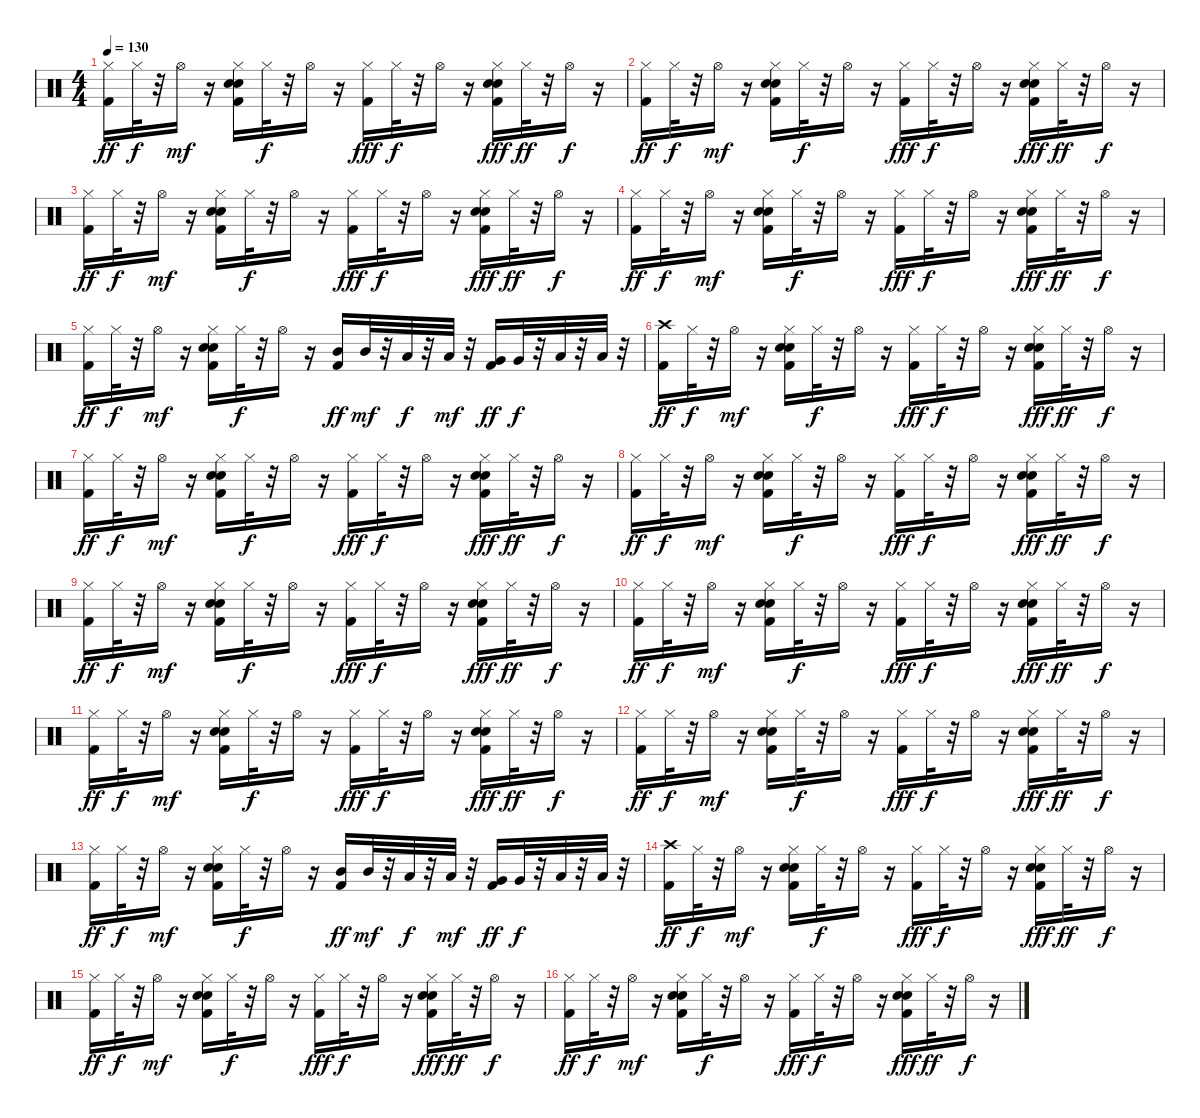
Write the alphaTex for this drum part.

\track "" {instrument percussion}
\staff {score}
\articulation defaults
\ts (4 4)
\tempo 130
\clef neutral
\ks c
("Kick (hit) 2" "Hi-Hat (closed)").16{dy ff} "Hi-Hat (closed)".32{dy f} r.32 "Hi-Hat (open)".16{dy mf} r.16 ("Kick (hit) 2" "Hand Clap (hit)" "Electric Snare (hit)" "Hi-Hat (closed)").16 "Hi-Hat (closed)".32{dy f} r.32 "Hi-Hat (open)".16 r.16 ("Kick (hit) 2" "Hi-Hat (closed)").16{dy fff} "Hi-Hat (closed)".32{dy f} r.32 "Hi-Hat (open)".16 r.16 ("Kick (hit) 2" "Hand Clap (hit)" "Electric Snare (hit)" "Hi-Hat (closed)").16{dy fff} "Hi-Hat (closed)".32{dy ff} r.32 "Hi-Hat (open)".16{dy f} r.16 |
("Kick (hit) 2" "Hi-Hat (closed)").16{dy ff} "Hi-Hat (closed)".32{dy f} r.32 "Hi-Hat (open)".16{dy mf} r.16 ("Kick (hit) 2" "Hand Clap (hit)" "Electric Snare (hit)" "Hi-Hat (closed)").16 "Hi-Hat (closed)".32{dy f} r.32 "Hi-Hat (open)".16 r.16 ("Kick (hit) 2" "Hi-Hat (closed)").16{dy fff} "Hi-Hat (closed)".32{dy f} r.32 "Hi-Hat (open)".16 r.16 ("Kick (hit) 2" "Hand Clap (hit)" "Electric Snare (hit)" "Hi-Hat (closed)").16{dy fff} "Hi-Hat (closed)".32{dy ff} r.32 "Hi-Hat (open)".16{dy f} r.16 |
("Kick (hit) 2" "Hi-Hat (closed)").16{dy ff} "Hi-Hat (closed)".32{dy f} r.32 "Hi-Hat (open)".16{dy mf} r.16 ("Kick (hit) 2" "Hand Clap (hit)" "Electric Snare (hit)" "Hi-Hat (closed)").16 "Hi-Hat (closed)".32{dy f} r.32 "Hi-Hat (open)".16 r.16 ("Kick (hit) 2" "Hi-Hat (closed)").16{dy fff} "Hi-Hat (closed)".32{dy f} r.32 "Hi-Hat (open)".16 r.16 ("Kick (hit) 2" "Hand Clap (hit)" "Electric Snare (hit)" "Hi-Hat (closed)").16{dy fff} "Hi-Hat (closed)".32{dy ff} r.32 "Hi-Hat (open)".16{dy f} r.16 |
("Kick (hit) 2" "Hi-Hat (closed)").16{dy ff} "Hi-Hat (closed)".32{dy f} r.32 "Hi-Hat (open)".16{dy mf} r.16 ("Kick (hit) 2" "Hand Clap (hit)" "Electric Snare (hit)" "Hi-Hat (closed)").16 "Hi-Hat (closed)".32{dy f} r.32 "Hi-Hat (open)".16 r.16 ("Kick (hit) 2" "Hi-Hat (closed)").16{dy fff} "Hi-Hat (closed)".32{dy f} r.32 "Hi-Hat (open)".16 r.16 ("Kick (hit) 2" "Hand Clap (hit)" "Electric Snare (hit)" "Hi-Hat (closed)").16{dy fff} "Hi-Hat (closed)".32{dy ff} r.32 "Hi-Hat (open)".16{dy f} r.16 |
("Kick (hit) 2" "Hi-Hat (closed)").16{dy ff} "Hi-Hat (closed)".32{dy f} r.32 "Hi-Hat (open)".16{dy mf} r.16 ("Kick (hit) 2" "Hand Clap (hit)" "Electric Snare (hit)" "Hi-Hat (closed)").16 "Hi-Hat (closed)".32{dy f} r.32 "Hi-Hat (open)".16 r.16 ("Kick (hit) 2" "Mid Tom (hit)").16{dy ff} "Mid Tom (hit)".32{dy mf} r.32 "Low Tom (hit)".32{dy f} r.32 "Low Tom (hit)".32{dy mf} r.32 ("Kick (hit) 2" "Very Low Tom (hit)").16{dy ff} "Very Low Tom (hit)".32{dy f} r.32 "Low Floor Tom (hit)".32 r.32 "Low Floor Tom (hit)".32 r.32 |
("Kick (hit) 2" "Crash high (hit)").16{dy ff} "Hi-Hat (closed)".32{dy f} r.32 "Hi-Hat (open)".16{dy mf} r.16 ("Kick (hit) 2" "Hand Clap (hit)" "Electric Snare (hit)" "Hi-Hat (closed)").16 "Hi-Hat (closed)".32{dy f} r.32 "Hi-Hat (open)".16 r.16 ("Kick (hit) 2" "Hi-Hat (closed)").16{dy fff} "Hi-Hat (closed)".32{dy f} r.32 "Hi-Hat (open)".16 r.16 ("Kick (hit) 2" "Hand Clap (hit)" "Electric Snare (hit)" "Hi-Hat (closed)").16{dy fff} "Hi-Hat (closed)".32{dy ff} r.32 "Hi-Hat (open)".16{dy f} r.16 |
("Kick (hit) 2" "Hi-Hat (closed)").16{dy ff} "Hi-Hat (closed)".32{dy f} r.32 "Hi-Hat (open)".16{dy mf} r.16 ("Kick (hit) 2" "Hand Clap (hit)" "Electric Snare (hit)" "Hi-Hat (closed)").16 "Hi-Hat (closed)".32{dy f} r.32 "Hi-Hat (open)".16 r.16 ("Kick (hit) 2" "Hi-Hat (closed)").16{dy fff} "Hi-Hat (closed)".32{dy f} r.32 "Hi-Hat (open)".16 r.16 ("Kick (hit) 2" "Hand Clap (hit)" "Electric Snare (hit)" "Hi-Hat (closed)").16{dy fff} "Hi-Hat (closed)".32{dy ff} r.32 "Hi-Hat (open)".16{dy f} r.16 |
("Kick (hit) 2" "Hi-Hat (closed)").16{dy ff} "Hi-Hat (closed)".32{dy f} r.32 "Hi-Hat (open)".16{dy mf} r.16 ("Kick (hit) 2" "Hand Clap (hit)" "Electric Snare (hit)" "Hi-Hat (closed)").16 "Hi-Hat (closed)".32{dy f} r.32 "Hi-Hat (open)".16 r.16 ("Kick (hit) 2" "Hi-Hat (closed)").16{dy fff} "Hi-Hat (closed)".32{dy f} r.32 "Hi-Hat (open)".16 r.16 ("Kick (hit) 2" "Hand Clap (hit)" "Electric Snare (hit)" "Hi-Hat (closed)").16{dy fff} "Hi-Hat (closed)".32{dy ff} r.32 "Hi-Hat (open)".16{dy f} r.16 |
("Kick (hit) 2" "Hi-Hat (closed)").16{dy ff} "Hi-Hat (closed)".32{dy f} r.32 "Hi-Hat (open)".16{dy mf} r.16 ("Kick (hit) 2" "Hand Clap (hit)" "Electric Snare (hit)" "Hi-Hat (closed)").16 "Hi-Hat (closed)".32{dy f} r.32 "Hi-Hat (open)".16 r.16 ("Kick (hit) 2" "Hi-Hat (closed)").16{dy fff} "Hi-Hat (closed)".32{dy f} r.32 "Hi-Hat (open)".16 r.16 ("Kick (hit) 2" "Hand Clap (hit)" "Electric Snare (hit)" "Hi-Hat (closed)").16{dy fff} "Hi-Hat (closed)".32{dy ff} r.32 "Hi-Hat (open)".16{dy f} r.16 |
("Kick (hit) 2" "Hi-Hat (closed)").16{dy ff} "Hi-Hat (closed)".32{dy f} r.32 "Hi-Hat (open)".16{dy mf} r.16 ("Kick (hit) 2" "Hand Clap (hit)" "Electric Snare (hit)" "Hi-Hat (closed)").16 "Hi-Hat (closed)".32{dy f} r.32 "Hi-Hat (open)".16 r.16 ("Kick (hit) 2" "Hi-Hat (closed)").16{dy fff} "Hi-Hat (closed)".32{dy f} r.32 "Hi-Hat (open)".16 r.16 ("Kick (hit) 2" "Hand Clap (hit)" "Electric Snare (hit)" "Hi-Hat (closed)").16{dy fff} "Hi-Hat (closed)".32{dy ff} r.32 "Hi-Hat (open)".16{dy f} r.16 |
("Kick (hit) 2" "Hi-Hat (closed)").16{dy ff} "Hi-Hat (closed)".32{dy f} r.32 "Hi-Hat (open)".16{dy mf} r.16 ("Kick (hit) 2" "Hand Clap (hit)" "Electric Snare (hit)" "Hi-Hat (closed)").16 "Hi-Hat (closed)".32{dy f} r.32 "Hi-Hat (open)".16 r.16 ("Kick (hit) 2" "Hi-Hat (closed)").16{dy fff} "Hi-Hat (closed)".32{dy f} r.32 "Hi-Hat (open)".16 r.16 ("Kick (hit) 2" "Hand Clap (hit)" "Electric Snare (hit)" "Hi-Hat (closed)").16{dy fff} "Hi-Hat (closed)".32{dy ff} r.32 "Hi-Hat (open)".16{dy f} r.16 |
("Kick (hit) 2" "Hi-Hat (closed)").16{dy ff} "Hi-Hat (closed)".32{dy f} r.32 "Hi-Hat (open)".16{dy mf} r.16 ("Kick (hit) 2" "Hand Clap (hit)" "Electric Snare (hit)" "Hi-Hat (closed)").16 "Hi-Hat (closed)".32{dy f} r.32 "Hi-Hat (open)".16 r.16 ("Kick (hit) 2" "Hi-Hat (closed)").16{dy fff} "Hi-Hat (closed)".32{dy f} r.32 "Hi-Hat (open)".16 r.16 ("Kick (hit) 2" "Hand Clap (hit)" "Electric Snare (hit)" "Hi-Hat (closed)").16{dy fff} "Hi-Hat (closed)".32{dy ff} r.32 "Hi-Hat (open)".16{dy f} r.16 |
("Kick (hit) 2" "Hi-Hat (closed)").16{dy ff} "Hi-Hat (closed)".32{dy f} r.32 "Hi-Hat (open)".16{dy mf} r.16 ("Kick (hit) 2" "Hand Clap (hit)" "Electric Snare (hit)" "Hi-Hat (closed)").16 "Hi-Hat (closed)".32{dy f} r.32 "Hi-Hat (open)".16 r.16 ("Kick (hit) 2" "Mid Tom (hit)").16{dy ff} "Mid Tom (hit)".32{dy mf} r.32 "Low Tom (hit)".32{dy f} r.32 "Low Tom (hit)".32{dy mf} r.32 ("Kick (hit) 2" "Very Low Tom (hit)").16{dy ff} "Very Low Tom (hit)".32{dy f} r.32 "Low Floor Tom (hit)".32 r.32 "Low Floor Tom (hit)".32 r.32 |
("Kick (hit) 2" "Crash high (hit)").16{dy ff} "Hi-Hat (closed)".32{dy f} r.32 "Hi-Hat (open)".16{dy mf} r.16 ("Kick (hit) 2" "Hand Clap (hit)" "Electric Snare (hit)" "Hi-Hat (closed)").16 "Hi-Hat (closed)".32{dy f} r.32 "Hi-Hat (open)".16 r.16 ("Kick (hit) 2" "Hi-Hat (closed)").16{dy fff} "Hi-Hat (closed)".32{dy f} r.32 "Hi-Hat (open)".16 r.16 ("Kick (hit) 2" "Hand Clap (hit)" "Electric Snare (hit)" "Hi-Hat (closed)").16{dy fff} "Hi-Hat (closed)".32{dy ff} r.32 "Hi-Hat (open)".16{dy f} r.16 |
("Kick (hit) 2" "Hi-Hat (closed)").16{dy ff} "Hi-Hat (closed)".32{dy f} r.32 "Hi-Hat (open)".16{dy mf} r.16 ("Kick (hit) 2" "Hand Clap (hit)" "Electric Snare (hit)" "Hi-Hat (closed)").16 "Hi-Hat (closed)".32{dy f} r.32 "Hi-Hat (open)".16 r.16 ("Kick (hit) 2" "Hi-Hat (closed)").16{dy fff} "Hi-Hat (closed)".32{dy f} r.32 "Hi-Hat (open)".16 r.16 ("Kick (hit) 2" "Hand Clap (hit)" "Electric Snare (hit)" "Hi-Hat (closed)").16{dy fff} "Hi-Hat (closed)".32{dy ff} r.32 "Hi-Hat (open)".16{dy f} r.16 |
("Kick (hit) 2" "Hi-Hat (closed)").16{dy ff} "Hi-Hat (closed)".32{dy f} r.32 "Hi-Hat (open)".16{dy mf} r.16 ("Kick (hit) 2" "Hand Clap (hit)" "Electric Snare (hit)" "Hi-Hat (closed)").16 "Hi-Hat (closed)".32{dy f} r.32 "Hi-Hat (open)".16 r.16 ("Kick (hit) 2" "Hi-Hat (closed)").16{dy fff} "Hi-Hat (closed)".32{dy f} r.32 "Hi-Hat (open)".16 r.16 ("Kick (hit) 2" "Hand Clap (hit)" "Electric Snare (hit)" "Hi-Hat (closed)").16{dy fff} "Hi-Hat (closed)".32{dy ff} r.32 "Hi-Hat (open)".16{dy f} r.16
